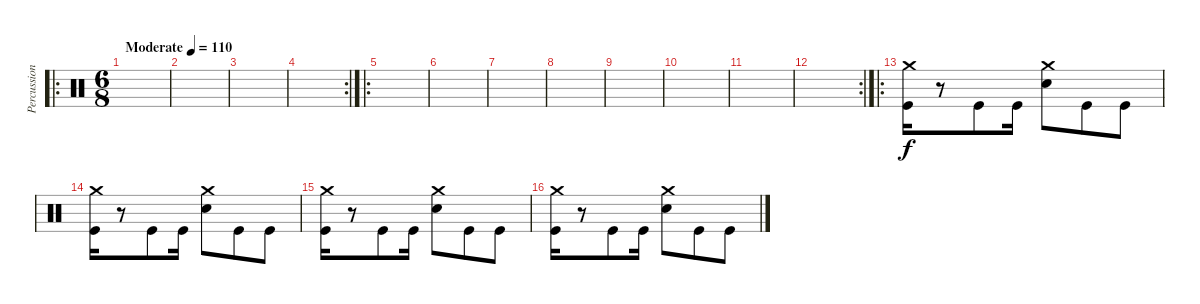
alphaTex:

\track ("Percussion" "Percussion") {instrument percussion}
\staff {score}
\articulation defaults
\ro
\ts (6 8)
\tempo (110 "Moderate")
\clef neutral
\ks c
|
|
|
\rc 2
|
\ro
|
|
|
|
|
|
|
\rc 2
|
\ro
("Crash medium (hit)" "Kick (hit)").16 r.8 "Kick (hit)".8 "Kick (hit)".16 ("Crash medium (hit)" "Snare (hit) 2").8 "Kick (hit)".8 "Kick (hit)".8 |
("Crash medium (hit)" "Kick (hit)").16 r.8 "Kick (hit)".8 "Kick (hit)".16 ("Crash medium (hit)" "Snare (hit) 2").8 "Kick (hit)".8 "Kick (hit)".8 |
("Crash medium (hit)" "Kick (hit)").16 r.8 "Kick (hit)".8 "Kick (hit)".16 ("Crash medium (hit)" "Snare (hit) 2").8 "Kick (hit)".8 "Kick (hit)".8 |
("Crash medium (hit)" "Kick (hit)").16 r.8 "Kick (hit)".8 "Kick (hit)".16 ("Crash medium (hit)" "Snare (hit) 2").8 "Kick (hit)".8 "Kick (hit)".8
